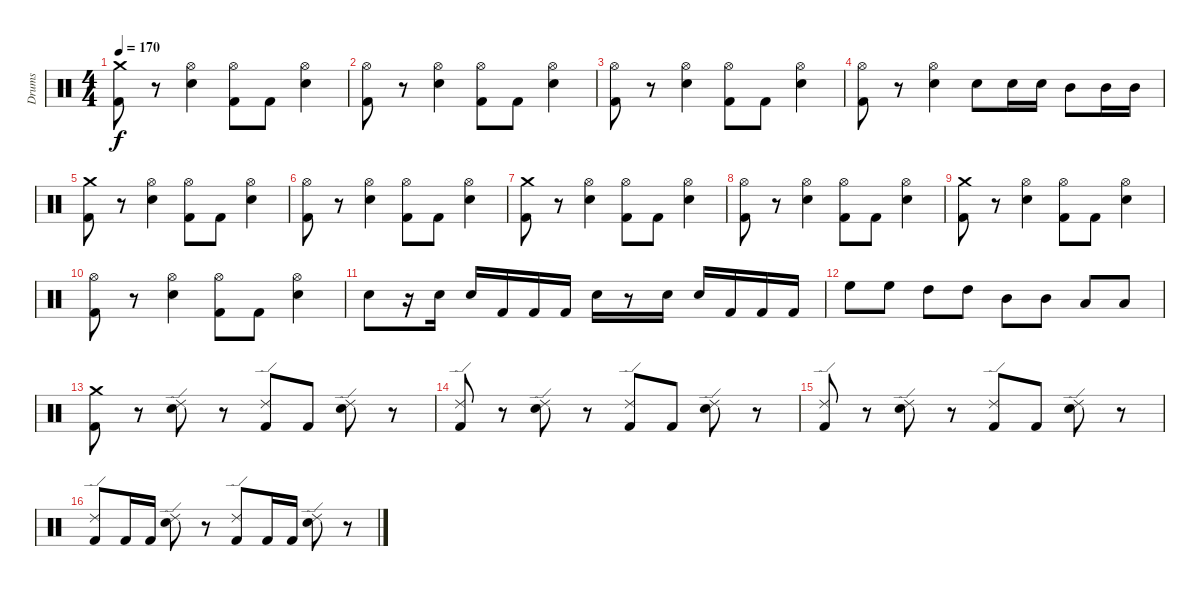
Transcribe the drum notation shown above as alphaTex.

\track ("Drums" "Drums") {instrument percussion}
\staff {score}
\articulation defaults
\ts (4 4)
\tempo 170
\clef neutral
\ks c
("Kick (hit) 2" "Crash medium (hit)").8{dy f} r.8 ("Hi-Hat (open)" "Electric Snare (hit)").4 ("Hi-Hat (open)" "Kick (hit) 2").8 "Kick (hit) 2".8 ("Hi-Hat (open)" "Electric Snare (hit)").4 |
("Hi-Hat (open)" "Kick (hit) 2").8 r.8 ("Hi-Hat (open)" "Electric Snare (hit)").4 ("Hi-Hat (open)" "Kick (hit) 2").8 "Kick (hit) 2".8 ("Hi-Hat (open)" "Electric Snare (hit)").4 |
("Hi-Hat (open)" "Kick (hit) 2").8 r.8 ("Hi-Hat (open)" "Electric Snare (hit)").4 ("Hi-Hat (open)" "Kick (hit) 2").8 "Kick (hit) 2".8 ("Hi-Hat (open)" "Electric Snare (hit)").4 |
("Hi-Hat (open)" "Kick (hit) 2").8 r.8 ("Hi-Hat (open)" "Electric Snare (hit)").4 "Electric Snare (hit)".8 "Electric Snare (hit)".16 "Electric Snare (hit)".16 "Mid Tom (hit)".8 "Mid Tom (hit)".16 "Mid Tom (hit)".16 |
("Kick (hit) 2" "Crash medium (hit)").8 r.8 ("Hi-Hat (open)" "Electric Snare (hit)").4 ("Hi-Hat (open)" "Kick (hit) 2").8 "Kick (hit) 2".8 ("Hi-Hat (open)" "Electric Snare (hit)").4 |
("Hi-Hat (open)" "Kick (hit) 2").8 r.8 ("Hi-Hat (open)" "Electric Snare (hit)").4 ("Hi-Hat (open)" "Kick (hit) 2").8 "Kick (hit) 2".8 ("Hi-Hat (open)" "Electric Snare (hit)").4 |
("Crash medium (hit)" "Kick (hit) 2").8 r.8 ("Hi-Hat (open)" "Electric Snare (hit)").4 ("Hi-Hat (open)" "Kick (hit) 2").8 "Kick (hit) 2".8 ("Hi-Hat (open)" "Electric Snare (hit)").4 |
("Hi-Hat (open)" "Kick (hit) 2").8 r.8 ("Hi-Hat (open)" "Electric Snare (hit)").4 ("Hi-Hat (open)" "Kick (hit) 2").8 "Kick (hit) 2".8 ("Hi-Hat (open)" "Electric Snare (hit)").4 |
("Kick (hit) 2" "Crash medium (hit)").8 r.8 ("Hi-Hat (open)" "Electric Snare (hit)").4 ("Hi-Hat (open)" "Kick (hit) 2").8 "Kick (hit) 2".8 ("Hi-Hat (open)" "Electric Snare (hit)").4 |
("Hi-Hat (open)" "Kick (hit) 2").8 r.8 ("Hi-Hat (open)" "Electric Snare (hit)").4 ("Hi-Hat (open)" "Kick (hit) 2").8 "Kick (hit) 2".8 ("Hi-Hat (open)" "Electric Snare (hit)").4 |
"Electric Snare (hit)".8 r.16 "Electric Snare (hit)".16 "Electric Snare (hit)".16 "Kick (hit) 2".16 "Kick (hit) 2".16 "Kick (hit) 2".16 "Electric Snare (hit)".16 r.8 "Electric Snare (hit)".16 "Electric Snare (hit)".16 "Kick (hit) 2".16 "Kick (hit) 2".16 "Kick (hit) 2".16 |
"High Floor Tom (hit)".8 "High Floor Tom (hit)".8 "High Tom (hit)".8 "High Tom (hit)".8 "Mid Tom (hit)".8 "Mid Tom (hit)".8 "Low Tom (hit)".8 "Low Tom (hit)".8 |
("Crash medium (hit)" "Kick (hit) 2").8 r.8 ("Ride (edge) 2" "Electric Snare (hit)").8 r.8 ("Ride (edge) 2" "Kick (hit) 2").8 "Kick (hit) 2".8 ("Ride (edge) 2" "Electric Snare (hit)").8 r.8 |
("Ride (edge) 2" "Kick (hit) 2").8 r.8 ("Ride (edge) 2" "Electric Snare (hit)").8 r.8 ("Ride (edge) 2" "Kick (hit) 2").8 "Kick (hit) 2".8 ("Ride (edge) 2" "Electric Snare (hit)").8 r.8 |
("Ride (edge) 2" "Kick (hit) 2").8 r.8 ("Ride (edge) 2" "Electric Snare (hit)").8 r.8 ("Ride (edge) 2" "Kick (hit) 2").8 "Kick (hit) 2".8 ("Ride (edge) 2" "Electric Snare (hit)").8 r.8 |
("Ride (edge) 2" "Kick (hit) 2").8 "Kick (hit) 2".16 "Kick (hit) 2".16 ("Ride (edge) 2" "Electric Snare (hit)").8 r.8 ("Ride (edge) 2" "Kick (hit) 2").8 "Kick (hit) 2".16 "Kick (hit) 2".16 ("Ride (edge) 2" "Electric Snare (hit)").8 r.8
